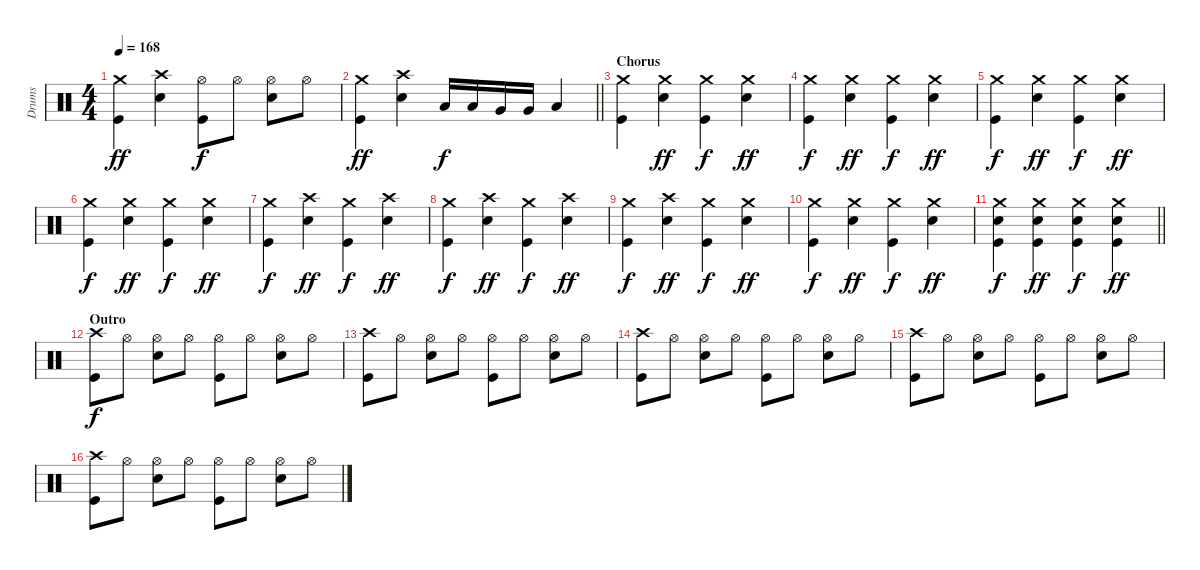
\track ("Drums" "Drums") {instrument percussion}
\staff {score}
\articulation defaults
\ts (4 4)
\tempo 168
\clef neutral
\ks c
("Crash medium (hit)" "Kick (hit)").4{dy ff} ("Crash high (hit)" "Snare (hit) 2").4 ("Hi-Hat (open)" "Kick (hit)").8{dy f} "Hi-Hat (open)".8 ("Hi-Hat (open)" "Snare (hit) 2").8 "Hi-Hat (open)".8 |
\barLineRight lightlight
("Crash medium (hit)" "Kick (hit)").4{dy ff} ("Crash high (hit)" "Snare (hit) 2").4 "Low Tom (hit)".16{dy f} "Low Tom (hit)".16 "Very Low Tom (hit)".16 "Very Low Tom (hit)".16 "Low Floor Tom (hit)".4 |
\section ("" "Chorus")
("Crash medium (hit)" "Kick (hit)").4 ("Crash medium (hit)" "Snare (hit) 2").4{dy ff} ("Crash medium (hit)" "Kick (hit)").4{dy f} ("Crash medium (hit)" "Snare (hit) 2").4{dy ff} |
("Crash medium (hit)" "Kick (hit)").4{dy f} ("Crash medium (hit)" "Snare (hit) 2").4{dy ff} ("Crash medium (hit)" "Kick (hit)").4{dy f} ("Crash medium (hit)" "Snare (hit) 2").4{dy ff} |
("Crash medium (hit)" "Kick (hit)").4{dy f} ("Crash medium (hit)" "Snare (hit) 2").4{dy ff} ("Crash medium (hit)" "Kick (hit)").4{dy f} ("Crash medium (hit)" "Snare (hit) 2").4{dy ff} |
("Crash medium (hit)" "Kick (hit)").4{dy f} ("Crash medium (hit)" "Snare (hit) 2").4{dy ff} ("Crash medium (hit)" "Kick (hit)").4{dy f} ("Crash medium (hit)" "Snare (hit) 2").4{dy ff} |
("Crash medium (hit)" "Kick (hit)").4{dy f} ("Crash high (hit)" "Snare (hit) 2").4{dy ff} ("Crash medium (hit)" "Kick (hit)").4{dy f} ("Crash high (hit)" "Snare (hit) 2").4{dy ff} |
("Crash medium (hit)" "Kick (hit)").4{dy f} ("Crash high (hit)" "Snare (hit) 2").4{dy ff} ("Crash medium (hit)" "Kick (hit)").4{dy f} ("Crash high (hit)" "Snare (hit) 2").4{dy ff} |
("Crash medium (hit)" "Kick (hit)").4{dy f} ("Crash high (hit)" "Snare (hit) 2").4{dy ff} ("Crash medium (hit)" "Kick (hit)").4{dy f} ("Crash medium (hit)" "Snare (hit) 2").4{dy ff} |
("Crash medium (hit)" "Kick (hit)").4{dy f} ("Crash medium (hit)" "Snare (hit) 2").4{dy ff} ("Crash medium (hit)" "Kick (hit)").4{dy f} ("Crash medium (hit)" "Snare (hit) 2").4{dy ff} |
\barLineRight lightlight
("Crash medium (hit)" "Snare (hit) 2" "Kick (hit)").4{dy f} ("Crash medium (hit)" "Snare (hit) 2" "Kick (hit)").4{dy ff} ("Crash medium (hit)" "Snare (hit) 2" "Kick (hit)").4{dy f} ("Crash medium (hit)" "Snare (hit) 2" "Kick (hit)").4{dy ff} |
\section ("" "Outro")
("Crash high (hit)" "Kick (hit)").8{dy f} "Hi-Hat (open)".8 ("Hi-Hat (open)" "Snare (hit) 2").8 "Hi-Hat (open)".8 ("Hi-Hat (open)" "Kick (hit)").8 "Hi-Hat (open)".8 ("Hi-Hat (open)" "Snare (hit) 2").8 "Hi-Hat (open)".8 |
("Crash high (hit)" "Kick (hit)").8 "Hi-Hat (open)".8 ("Hi-Hat (open)" "Snare (hit) 2").8 "Hi-Hat (open)".8 ("Hi-Hat (open)" "Kick (hit)").8 "Hi-Hat (open)".8 ("Hi-Hat (open)" "Snare (hit) 2").8 "Hi-Hat (open)".8 |
("Crash high (hit)" "Kick (hit)").8 "Hi-Hat (open)".8 ("Hi-Hat (open)" "Snare (hit) 2").8 "Hi-Hat (open)".8 ("Hi-Hat (open)" "Kick (hit)").8 "Hi-Hat (open)".8 ("Hi-Hat (open)" "Snare (hit) 2").8 "Hi-Hat (open)".8 |
("Crash high (hit)" "Kick (hit)").8 "Hi-Hat (open)".8 ("Hi-Hat (open)" "Snare (hit) 2").8 "Hi-Hat (open)".8 ("Hi-Hat (open)" "Kick (hit)").8 "Hi-Hat (open)".8 ("Hi-Hat (open)" "Snare (hit) 2").8 "Hi-Hat (open)".8 |
("Crash high (hit)" "Kick (hit)").8 "Hi-Hat (open)".8 ("Hi-Hat (open)" "Snare (hit) 2").8 "Hi-Hat (open)".8 ("Hi-Hat (open)" "Kick (hit)").8 "Hi-Hat (open)".8 ("Hi-Hat (open)" "Snare (hit) 2").8 "Hi-Hat (open)".8
